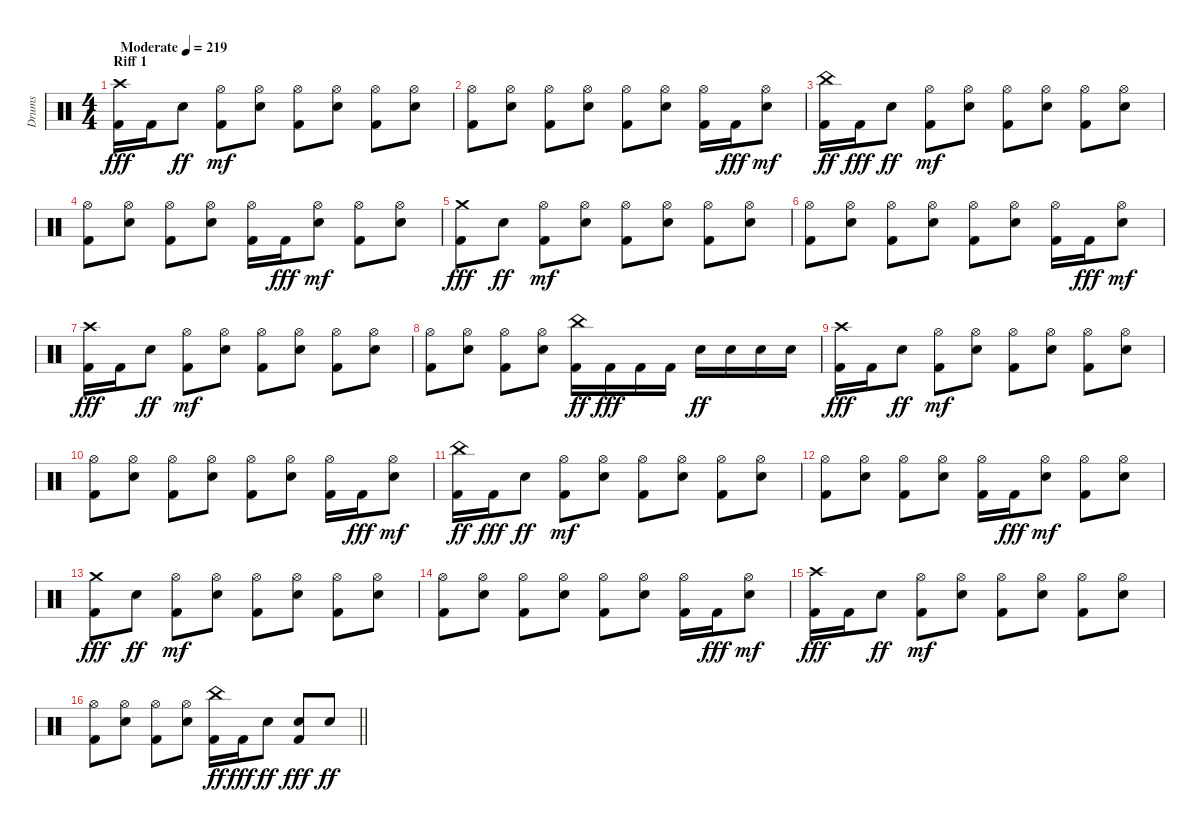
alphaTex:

\track ("Drums" "Drums") {instrument percussion}
\staff {score}
\articulation defaults
\ts (4 4)
\section ("" "Riff 1")
\tempo (219 "Moderate")
\clef neutral
\ks c
("Kick (hit) 2" "Crash high (hit)").16{dy fff} "Kick (hit) 2".16 "Snare (hit) 2".8{dy ff} ("Kick (hit) 2" "Hi-Hat (open)").8{dy mf} ("Snare (hit) 2" "Hi-Hat (open)").8 ("Kick (hit) 2" "Hi-Hat (open)").8 ("Snare (hit) 2" "Hi-Hat (open)").8 ("Kick (hit) 2" "Hi-Hat (open)").8 ("Snare (hit) 2" "Hi-Hat (open)").8 |
("Kick (hit) 2" "Hi-Hat (open)").8 ("Snare (hit) 2" "Hi-Hat (open)").8 ("Kick (hit) 2" "Hi-Hat (open)").8 ("Snare (hit) 2" "Hi-Hat (open)").8 ("Kick (hit) 2" "Hi-Hat (open)").8 ("Snare (hit) 2" "Hi-Hat (open)").8 ("Kick (hit) 2" "Hi-Hat (open)").16 "Kick (hit) 2".16{dy fff} ("Snare (hit) 2" "Hi-Hat (open)").8{dy mf} |
("Kick (hit) 2" "China (hit)").16{dy ff} "Kick (hit) 2".16{dy fff} "Snare (hit) 2".8{dy ff} ("Kick (hit) 2" "Hi-Hat (open)").8{dy mf} ("Snare (hit) 2" "Hi-Hat (open)").8 ("Kick (hit) 2" "Hi-Hat (open)").8 ("Snare (hit) 2" "Hi-Hat (open)").8 ("Kick (hit) 2" "Hi-Hat (open)").8 ("Snare (hit) 2" "Hi-Hat (open)").8 |
("Kick (hit) 2" "Hi-Hat (open)").8 ("Snare (hit) 2" "Hi-Hat (open)").8 ("Kick (hit) 2" "Hi-Hat (open)").8 ("Snare (hit) 2" "Hi-Hat (open)").8 ("Kick (hit) 2" "Hi-Hat (open)").16 "Kick (hit) 2".16{dy fff} ("Snare (hit) 2" "Hi-Hat (open)").8{dy mf} ("Kick (hit) 2" "Hi-Hat (open)").8 ("Snare (hit) 2" "Hi-Hat (open)").8 |
("Kick (hit) 2" "Crash medium (hit)").8{dy fff} "Snare (hit) 2".8{dy ff} ("Kick (hit) 2" "Hi-Hat (open)").8{dy mf} ("Snare (hit) 2" "Hi-Hat (open)").8 ("Kick (hit) 2" "Hi-Hat (open)").8 ("Snare (hit) 2" "Hi-Hat (open)").8 ("Kick (hit) 2" "Hi-Hat (open)").8 ("Snare (hit) 2" "Hi-Hat (open)").8 |
("Kick (hit) 2" "Hi-Hat (open)").8 ("Snare (hit) 2" "Hi-Hat (open)").8 ("Kick (hit) 2" "Hi-Hat (open)").8 ("Snare (hit) 2" "Hi-Hat (open)").8 ("Kick (hit) 2" "Hi-Hat (open)").8 ("Snare (hit) 2" "Hi-Hat (open)").8 ("Kick (hit) 2" "Hi-Hat (open)").16 "Kick (hit) 2".16{dy fff} ("Snare (hit) 2" "Hi-Hat (open)").8{dy mf} |
("Kick (hit) 2" "Crash high (hit)").16{dy fff} "Kick (hit) 2".16 "Snare (hit) 2".8{dy ff} ("Kick (hit) 2" "Hi-Hat (open)").8{dy mf} ("Snare (hit) 2" "Hi-Hat (open)").8 ("Kick (hit) 2" "Hi-Hat (open)").8 ("Snare (hit) 2" "Hi-Hat (open)").8 ("Kick (hit) 2" "Hi-Hat (open)").8 ("Snare (hit) 2" "Hi-Hat (open)").8 |
("Kick (hit) 2" "Hi-Hat (open)").8 ("Snare (hit) 2" "Hi-Hat (open)").8 ("Kick (hit) 2" "Hi-Hat (open)").8 ("Snare (hit) 2" "Hi-Hat (open)").8 ("Kick (hit) 2" "China (hit)").16{dy ff} "Kick (hit) 2".16{dy fff} "Kick (hit) 2".16 "Kick (hit) 2".16 "Snare (hit) 2".16{dy ff} "Snare (hit) 2".16 "Snare (hit) 2".16 "Snare (hit) 2".16 |
("Kick (hit) 2" "Crash high (hit)").16{dy fff} "Kick (hit) 2".16 "Snare (hit) 2".8{dy ff} ("Kick (hit) 2" "Hi-Hat (open)").8{dy mf} ("Snare (hit) 2" "Hi-Hat (open)").8 ("Kick (hit) 2" "Hi-Hat (open)").8 ("Snare (hit) 2" "Hi-Hat (open)").8 ("Kick (hit) 2" "Hi-Hat (open)").8 ("Snare (hit) 2" "Hi-Hat (open)").8 |
("Kick (hit) 2" "Hi-Hat (open)").8 ("Snare (hit) 2" "Hi-Hat (open)").8 ("Kick (hit) 2" "Hi-Hat (open)").8 ("Snare (hit) 2" "Hi-Hat (open)").8 ("Kick (hit) 2" "Hi-Hat (open)").8 ("Snare (hit) 2" "Hi-Hat (open)").8 ("Kick (hit) 2" "Hi-Hat (open)").16 "Kick (hit) 2".16{dy fff} ("Snare (hit) 2" "Hi-Hat (open)").8{dy mf} |
("Kick (hit) 2" "China (hit)").16{dy ff} "Kick (hit) 2".16{dy fff} "Snare (hit) 2".8{dy ff} ("Kick (hit) 2" "Hi-Hat (open)").8{dy mf} ("Snare (hit) 2" "Hi-Hat (open)").8 ("Kick (hit) 2" "Hi-Hat (open)").8 ("Snare (hit) 2" "Hi-Hat (open)").8 ("Kick (hit) 2" "Hi-Hat (open)").8 ("Snare (hit) 2" "Hi-Hat (open)").8 |
("Kick (hit) 2" "Hi-Hat (open)").8 ("Snare (hit) 2" "Hi-Hat (open)").8 ("Kick (hit) 2" "Hi-Hat (open)").8 ("Snare (hit) 2" "Hi-Hat (open)").8 ("Kick (hit) 2" "Hi-Hat (open)").16 "Kick (hit) 2".16{dy fff} ("Snare (hit) 2" "Hi-Hat (open)").8{dy mf} ("Kick (hit) 2" "Hi-Hat (open)").8 ("Snare (hit) 2" "Hi-Hat (open)").8 |
("Kick (hit) 2" "Crash medium (hit)").8{dy fff} "Snare (hit) 2".8{dy ff} ("Kick (hit) 2" "Hi-Hat (open)").8{dy mf} ("Snare (hit) 2" "Hi-Hat (open)").8 ("Kick (hit) 2" "Hi-Hat (open)").8 ("Snare (hit) 2" "Hi-Hat (open)").8 ("Kick (hit) 2" "Hi-Hat (open)").8 ("Snare (hit) 2" "Hi-Hat (open)").8 |
("Kick (hit) 2" "Hi-Hat (open)").8 ("Snare (hit) 2" "Hi-Hat (open)").8 ("Kick (hit) 2" "Hi-Hat (open)").8 ("Snare (hit) 2" "Hi-Hat (open)").8 ("Kick (hit) 2" "Hi-Hat (open)").8 ("Snare (hit) 2" "Hi-Hat (open)").8 ("Kick (hit) 2" "Hi-Hat (open)").16 "Kick (hit) 2".16{dy fff} ("Snare (hit) 2" "Hi-Hat (open)").8{dy mf} |
("Kick (hit) 2" "Crash high (hit)").16{dy fff} "Kick (hit) 2".16 "Snare (hit) 2".8{dy ff} ("Kick (hit) 2" "Hi-Hat (open)").8{dy mf} ("Snare (hit) 2" "Hi-Hat (open)").8 ("Kick (hit) 2" "Hi-Hat (open)").8 ("Snare (hit) 2" "Hi-Hat (open)").8 ("Kick (hit) 2" "Hi-Hat (open)").8 ("Snare (hit) 2" "Hi-Hat (open)").8 |
\barLineRight lightlight
("Kick (hit) 2" "Hi-Hat (open)").8 ("Snare (hit) 2" "Hi-Hat (open)").8 ("Kick (hit) 2" "Hi-Hat (open)").8 ("Snare (hit) 2" "Hi-Hat (open)").8 ("Kick (hit) 2" "China (hit)").16{dy ff} "Kick (hit) 2".16{dy fff} "Snare (hit) 2".8{dy ff} ("Kick (hit) 2" "Snare (hit) 2").8{dy fff} "Snare (hit) 2".8{dy ff}
